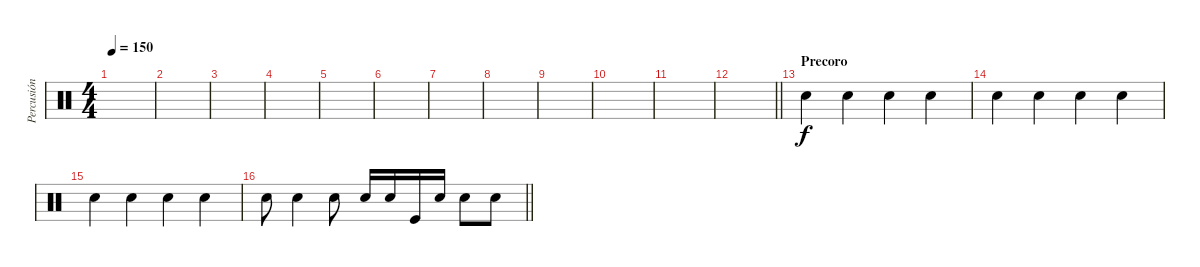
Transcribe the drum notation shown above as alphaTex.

\track ("Percusión" "Percusión") {instrument percussion}
\staff {score}
\articulation defaults
\ts (4 4)
\tempo 150
\clef neutral
\ks c
|
|
|
|
|
|
|
|
|
|
|
\barLineRight lightlight
|
\section ("" "Precoro")
"Electric Snare (hit)".4{volume 16} "Electric Snare (hit)".4 "Electric Snare (hit)".4 "Electric Snare (hit)".4 |
"Electric Snare (hit)".4 "Electric Snare (hit)".4 "Electric Snare (hit)".4 "Electric Snare (hit)".4 |
"Electric Snare (hit)".4 "Electric Snare (hit)".4 "Electric Snare (hit)".4 "Electric Snare (hit)".4 |
\barLineRight lightlight "Electric Snare (hit)".8 "Electric Snare (hit)".4 "Electric Snare (hit)".8 "Electric Snare (hit)".16 "Electric Snare (hit)".16 "Kick (hit)".16 "Electric Snare (hit)".16 "Electric Snare (hit)".8 "Electric Snare (hit)".8
